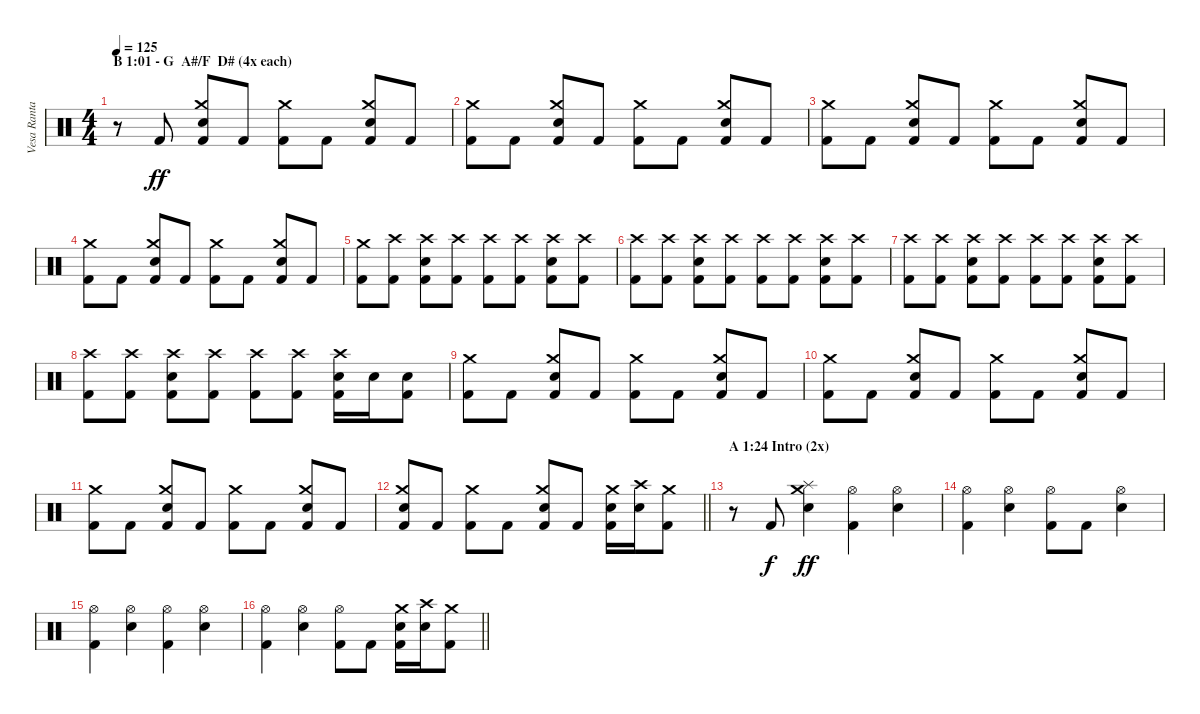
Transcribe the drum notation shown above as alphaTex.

\track ("Vesa Ranta (drums)" "Vesa Ranta") {instrument percussion}
\staff {score}
\articulation defaults
\ts (4 4)
\section ("" "B 1:01 - G  A#/F  D# (4x each)")
\tempo 125
\clef neutral
\ks c
r.8{dy ff} "Kick (hit) 2".8 ("Crash medium (hit)" "Electric Snare (hit)" "Kick (hit) 2").8 "Kick (hit) 2".8 ("Crash medium (hit)" "Kick (hit) 2").8 "Kick (hit) 2".8 ("Crash medium (hit)" "Electric Snare (hit)" "Kick (hit) 2").8 "Kick (hit) 2".8 |
("Crash medium (hit)" "Kick (hit) 2").8 "Kick (hit) 2".8 ("Crash medium (hit)" "Electric Snare (hit)" "Kick (hit) 2").8 "Kick (hit) 2".8 ("Crash medium (hit)" "Kick (hit) 2").8 "Kick (hit) 2".8 ("Crash medium (hit)" "Electric Snare (hit)" "Kick (hit) 2").8 "Kick (hit) 2".8 |
("Crash medium (hit)" "Kick (hit) 2").8 "Kick (hit) 2".8 ("Crash medium (hit)" "Electric Snare (hit)" "Kick (hit) 2").8 "Kick (hit) 2".8 ("Crash medium (hit)" "Kick (hit) 2").8 "Kick (hit) 2".8 ("Crash medium (hit)" "Electric Snare (hit)" "Kick (hit) 2").8 "Kick (hit) 2".8 |
("Crash medium (hit)" "Kick (hit) 2").8 "Kick (hit) 2".8 ("Crash medium (hit)" "Electric Snare (hit)" "Kick (hit) 2").8 "Kick (hit) 2".8 ("Crash medium (hit)" "Kick (hit) 2").8 "Kick (hit) 2".8 ("Crash medium (hit)" "Electric Snare (hit)" "Kick (hit) 2").8 "Kick (hit) 2".8 |
("Crash medium (hit)" "Kick (hit) 2").8 ("Crash high (hit)" "Kick (hit) 2").8 ("Crash high (hit)" "Electric Snare (hit)" "Kick (hit) 2").8 ("Crash high (hit)" "Kick (hit) 2").8 ("Crash high (hit)" "Kick (hit) 2").8 ("Crash high (hit)" "Kick (hit) 2").8 ("Crash high (hit)" "Electric Snare (hit)" "Kick (hit) 2").8 ("Crash high (hit)" "Kick (hit) 2").8 |
("Crash high (hit)" "Kick (hit) 2").8 ("Crash high (hit)" "Kick (hit) 2").8 ("Crash high (hit)" "Electric Snare (hit)" "Kick (hit) 2").8 ("Crash high (hit)" "Kick (hit) 2").8 ("Crash high (hit)" "Kick (hit) 2").8 ("Crash high (hit)" "Kick (hit) 2").8 ("Crash high (hit)" "Electric Snare (hit)" "Kick (hit) 2").8 ("Crash high (hit)" "Kick (hit) 2").8 |
("Crash high (hit)" "Kick (hit) 2").8 ("Crash high (hit)" "Kick (hit) 2").8 ("Crash high (hit)" "Electric Snare (hit)" "Kick (hit) 2").8 ("Crash high (hit)" "Kick (hit) 2").8 ("Crash high (hit)" "Kick (hit) 2").8 ("Crash high (hit)" "Kick (hit) 2").8 ("Crash high (hit)" "Electric Snare (hit)" "Kick (hit) 2").8 ("Crash high (hit)" "Kick (hit) 2").8 |
("Crash high (hit)" "Kick (hit) 2").8 ("Crash high (hit)" "Kick (hit) 2").8 ("Crash high (hit)" "Electric Snare (hit)" "Kick (hit) 2").8 ("Crash high (hit)" "Kick (hit) 2").8 ("Crash high (hit)" "Kick (hit) 2").8 ("Crash high (hit)" "Kick (hit) 2").8 ("Crash high (hit)" "Electric Snare (hit)" "Kick (hit) 2").16 "Electric Snare (hit)".16 ("Electric Snare (hit)" "Kick (hit) 2").8 |
("Crash medium (hit)" "Kick (hit) 2").8 "Kick (hit) 2".8 ("Crash medium (hit)" "Electric Snare (hit)" "Kick (hit) 2").8 "Kick (hit) 2".8 ("Crash medium (hit)" "Kick (hit) 2").8 "Kick (hit) 2".8 ("Crash medium (hit)" "Electric Snare (hit)" "Kick (hit) 2").8 "Kick (hit) 2".8 |
("Crash medium (hit)" "Kick (hit) 2").8 "Kick (hit) 2".8 ("Crash medium (hit)" "Electric Snare (hit)" "Kick (hit) 2").8 "Kick (hit) 2".8 ("Crash medium (hit)" "Kick (hit) 2").8 "Kick (hit) 2".8 ("Crash medium (hit)" "Electric Snare (hit)" "Kick (hit) 2").8 "Kick (hit) 2".8 |
("Crash medium (hit)" "Kick (hit) 2").8 "Kick (hit) 2".8 ("Crash medium (hit)" "Electric Snare (hit)" "Kick (hit) 2").8 "Kick (hit) 2".8 ("Crash medium (hit)" "Kick (hit) 2").8 "Kick (hit) 2".8 ("Crash medium (hit)" "Electric Snare (hit)" "Kick (hit) 2").8 "Kick (hit) 2".8 |
\barLineRight lightlight
("Crash medium (hit)" "Electric Snare (hit)" "Kick (hit) 2").8 "Kick (hit) 2".8 ("Crash medium (hit)" "Kick (hit) 2").8 "Kick (hit) 2".8 ("Crash medium (hit)" "Electric Snare (hit)" "Kick (hit) 2").8 "Kick (hit) 2".8 ("Crash medium (hit)" "Electric Snare (hit)" "Kick (hit) 2").16 ("Crash high (hit)" "Electric Snare (hit)").16 ("Crash medium (hit)" "Kick (hit) 2").8 |
\section ("" "A 1:24 Intro (2x)")
r.8 "Kick (hit) 2".8{dy f} ("Splash (hit)" "Crash medium (hit)" "Electric Snare (hit)").4{dy ff} ("Hi-Hat (open)" "Kick (hit) 2").4 ("Hi-Hat (open)" "Electric Snare (hit)").4 |
("Hi-Hat (open)" "Kick (hit) 2").4 ("Hi-Hat (open)" "Electric Snare (hit)").4 ("Hi-Hat (open)" "Kick (hit) 2").8 "Kick (hit) 2".8 ("Hi-Hat (open)" "Electric Snare (hit)").4 |
("Hi-Hat (open)" "Kick (hit) 2").4 ("Hi-Hat (open)" "Electric Snare (hit)").4 ("Hi-Hat (open)" "Kick (hit) 2").4 ("Hi-Hat (open)" "Electric Snare (hit)").4 |
\barLineRight lightlight
("Hi-Hat (open)" "Kick (hit) 2").4 ("Hi-Hat (open)" "Electric Snare (hit)").4 ("Hi-Hat (open)" "Kick (hit) 2").8 "Kick (hit) 2".8 ("Crash medium (hit)" "Electric Snare (hit)" "Kick (hit) 2").16 ("Crash high (hit)" "Electric Snare (hit)").16 ("Crash medium (hit)" "Kick (hit) 2").8
